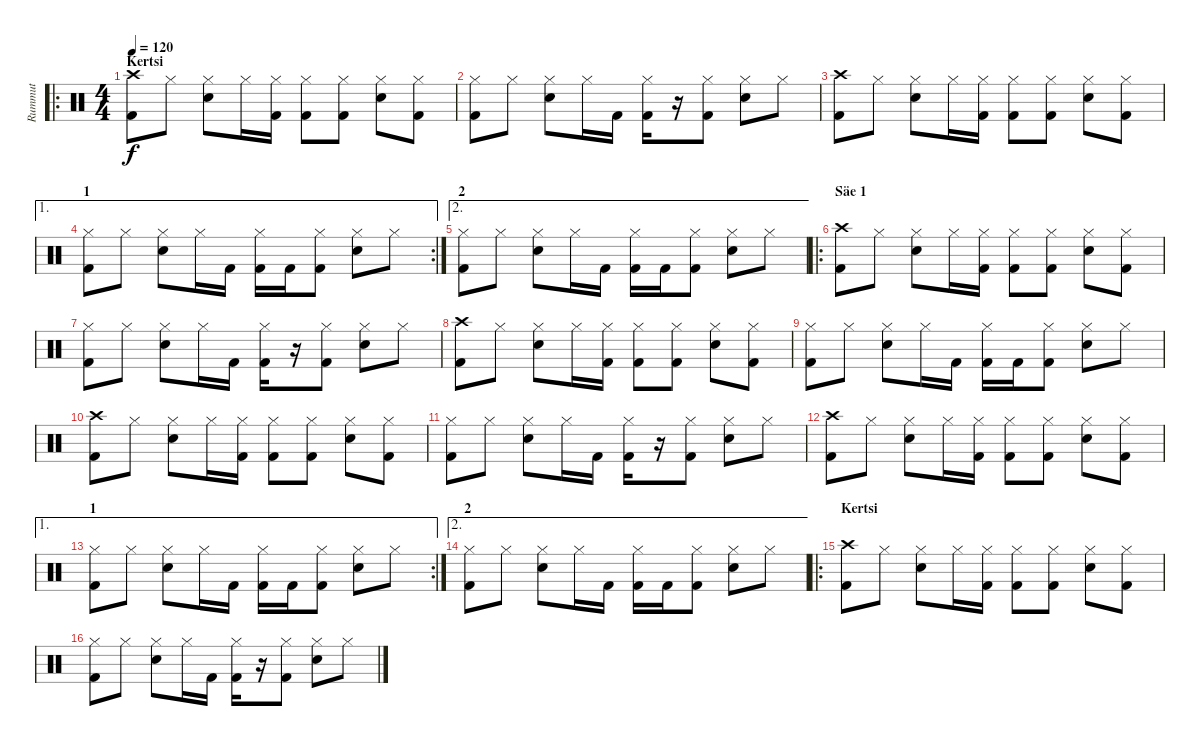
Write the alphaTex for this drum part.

\track ("Rummut" "Rummut") {instrument percussion}
\staff {score}
\articulation defaults
\ro
\ts (4 4)
\section ("" "Kertsi")
\tempo 120
\clef neutral
\ks c
("Crash high (hit)" "Kick (hit) 2").8{dy f} "Hi-Hat (closed)".8 ("Hi-Hat (closed)" "Electric Snare (hit)").8 "Hi-Hat (closed)".16 ("Hi-Hat (closed)" "Kick (hit) 2").16 ("Hi-Hat (closed)" "Kick (hit) 2").8 ("Hi-Hat (closed)" "Kick (hit) 2").8 ("Hi-Hat (closed)" "Electric Snare (hit)").8 ("Hi-Hat (closed)" "Kick (hit) 2").8 |
("Hi-Hat (closed)" "Kick (hit) 2").8 "Hi-Hat (closed)".8 ("Hi-Hat (closed)" "Electric Snare (hit)").8 "Hi-Hat (closed)".16 "Kick (hit) 2".16 ("Hi-Hat (closed)" "Kick (hit) 2").16 r.16 ("Hi-Hat (closed)" "Kick (hit) 2").8 ("Hi-Hat (closed)" "Electric Snare (hit)").8 "Hi-Hat (closed)".8 |
("Crash high (hit)" "Kick (hit) 2").8 "Hi-Hat (closed)".8 ("Hi-Hat (closed)" "Electric Snare (hit)").8 "Hi-Hat (closed)".16 ("Hi-Hat (closed)" "Kick (hit) 2").16 ("Hi-Hat (closed)" "Kick (hit) 2").8 ("Hi-Hat (closed)" "Kick (hit) 2").8 ("Hi-Hat (closed)" "Electric Snare (hit)").8 ("Hi-Hat (closed)" "Kick (hit) 2").8 |
\ae 1
\rc 2
\section ("" "1")
("Hi-Hat (closed)" "Kick (hit) 2").8 "Hi-Hat (closed)".8 ("Hi-Hat (closed)" "Electric Snare (hit)").8 "Hi-Hat (closed)".16 "Kick (hit) 2".16 ("Hi-Hat (closed)" "Kick (hit) 2").16 "Kick (hit) 2".16 ("Hi-Hat (closed)" "Kick (hit) 2").8 ("Hi-Hat (closed)" "Electric Snare (hit)").8 "Hi-Hat (closed)".8 |
\ae 2
\section ("" "2")
("Hi-Hat (closed)" "Kick (hit) 2").8 "Hi-Hat (closed)".8 ("Hi-Hat (closed)" "Electric Snare (hit)").8 "Hi-Hat (closed)".16 "Kick (hit) 2".16 ("Hi-Hat (closed)" "Kick (hit) 2").16 "Kick (hit) 2".16 ("Hi-Hat (closed)" "Kick (hit) 2").8 ("Hi-Hat (closed)" "Electric Snare (hit)").8 "Hi-Hat (closed)".8 |
\ro
\section ("" "Säe 1")
("Crash high (hit)" "Kick (hit) 2").8 "Hi-Hat (closed)".8 ("Hi-Hat (closed)" "Electric Snare (hit)").8 "Hi-Hat (closed)".16 ("Hi-Hat (closed)" "Kick (hit) 2").16 ("Hi-Hat (closed)" "Kick (hit) 2").8 ("Hi-Hat (closed)" "Kick (hit) 2").8 ("Hi-Hat (closed)" "Electric Snare (hit)").8 ("Hi-Hat (closed)" "Kick (hit) 2").8 |
("Hi-Hat (closed)" "Kick (hit) 2").8 "Hi-Hat (closed)".8 ("Hi-Hat (closed)" "Electric Snare (hit)").8 "Hi-Hat (closed)".16 "Kick (hit) 2".16 ("Hi-Hat (closed)" "Kick (hit) 2").16 r.16 ("Hi-Hat (closed)" "Kick (hit) 2").8 ("Hi-Hat (closed)" "Electric Snare (hit)").8 "Hi-Hat (closed)".8 |
("Crash high (hit)" "Kick (hit) 2").8 "Hi-Hat (closed)".8 ("Hi-Hat (closed)" "Electric Snare (hit)").8 "Hi-Hat (closed)".16 ("Hi-Hat (closed)" "Kick (hit) 2").16 ("Hi-Hat (closed)" "Kick (hit) 2").8 ("Hi-Hat (closed)" "Kick (hit) 2").8 ("Hi-Hat (closed)" "Electric Snare (hit)").8 ("Hi-Hat (closed)" "Kick (hit) 2").8 |
("Hi-Hat (closed)" "Kick (hit) 2").8 "Hi-Hat (closed)".8 ("Hi-Hat (closed)" "Electric Snare (hit)").8 "Hi-Hat (closed)".16 "Kick (hit) 2".16 ("Hi-Hat (closed)" "Kick (hit) 2").16 "Kick (hit) 2".16 ("Hi-Hat (closed)" "Kick (hit) 2").8 ("Hi-Hat (closed)" "Electric Snare (hit)").8 "Hi-Hat (closed)".8 |
("Crash high (hit)" "Kick (hit) 2").8 "Hi-Hat (closed)".8 ("Hi-Hat (closed)" "Electric Snare (hit)").8 "Hi-Hat (closed)".16 ("Hi-Hat (closed)" "Kick (hit) 2").16 ("Hi-Hat (closed)" "Kick (hit) 2").8 ("Hi-Hat (closed)" "Kick (hit) 2").8 ("Hi-Hat (closed)" "Electric Snare (hit)").8 ("Hi-Hat (closed)" "Kick (hit) 2").8 |
("Hi-Hat (closed)" "Kick (hit) 2").8 "Hi-Hat (closed)".8 ("Hi-Hat (closed)" "Electric Snare (hit)").8 "Hi-Hat (closed)".16 "Kick (hit) 2".16 ("Hi-Hat (closed)" "Kick (hit) 2").16 r.16 ("Hi-Hat (closed)" "Kick (hit) 2").8 ("Hi-Hat (closed)" "Electric Snare (hit)").8 "Hi-Hat (closed)".8 |
("Crash high (hit)" "Kick (hit) 2").8 "Hi-Hat (closed)".8 ("Hi-Hat (closed)" "Electric Snare (hit)").8 "Hi-Hat (closed)".16 ("Hi-Hat (closed)" "Kick (hit) 2").16 ("Hi-Hat (closed)" "Kick (hit) 2").8 ("Hi-Hat (closed)" "Kick (hit) 2").8 ("Hi-Hat (closed)" "Electric Snare (hit)").8 ("Hi-Hat (closed)" "Kick (hit) 2").8 |
\ae 1
\rc 2
\section ("" "1")
("Hi-Hat (closed)" "Kick (hit) 2").8 "Hi-Hat (closed)".8 ("Hi-Hat (closed)" "Electric Snare (hit)").8 "Hi-Hat (closed)".16 "Kick (hit) 2".16 ("Hi-Hat (closed)" "Kick (hit) 2").16 "Kick (hit) 2".16 ("Hi-Hat (closed)" "Kick (hit) 2").8 ("Hi-Hat (closed)" "Electric Snare (hit)").8 "Hi-Hat (closed)".8 |
\ae 2
\section ("" "2")
("Hi-Hat (closed)" "Kick (hit) 2").8 "Hi-Hat (closed)".8 ("Hi-Hat (closed)" "Electric Snare (hit)").8 "Hi-Hat (closed)".16 "Kick (hit) 2".16 ("Hi-Hat (closed)" "Kick (hit) 2").16 "Kick (hit) 2".16 ("Hi-Hat (closed)" "Kick (hit) 2").8 ("Hi-Hat (closed)" "Electric Snare (hit)").8 "Hi-Hat (closed)".8 |
\ro
\section ("" "Kertsi")
("Crash high (hit)" "Kick (hit) 2").8 "Hi-Hat (closed)".8 ("Hi-Hat (closed)" "Electric Snare (hit)").8 "Hi-Hat (closed)".16 ("Hi-Hat (closed)" "Kick (hit) 2").16 ("Hi-Hat (closed)" "Kick (hit) 2").8 ("Hi-Hat (closed)" "Kick (hit) 2").8 ("Hi-Hat (closed)" "Electric Snare (hit)").8 ("Hi-Hat (closed)" "Kick (hit) 2").8 |
("Hi-Hat (closed)" "Kick (hit) 2").8 "Hi-Hat (closed)".8 ("Hi-Hat (closed)" "Electric Snare (hit)").8 "Hi-Hat (closed)".16 "Kick (hit) 2".16 ("Hi-Hat (closed)" "Kick (hit) 2").16 r.16 ("Hi-Hat (closed)" "Kick (hit) 2").8 ("Hi-Hat (closed)" "Electric Snare (hit)").8 "Hi-Hat (closed)".8
